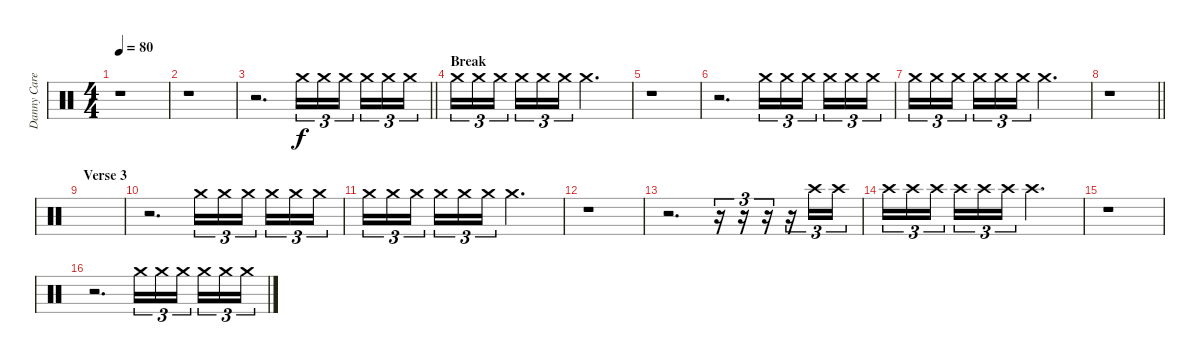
\track ("Danny Carey - Percussion" "Danny Care") {instrument percussion}
\staff {score}
\articulation defaults
\ts (4 4)
\tempo 80
\clef neutral
\ks c
r.1{dy f} |
r.1 |
\barLineRight lightlight
r.2{d volume 0} "Crash medium (hit)".16{tu (3 2) volume 10} "Crash medium (hit)".16{tu (3 2)} "Crash medium (hit)".16{tu (3 2) beam splitsecondary} "Crash medium (hit)".16{tu (3 2)} "Crash medium (hit)".16{tu (3 2)} "Crash medium (hit)".16{tu (3 2)} |
\section ("" "Break")
"Crash medium (hit)".16{tu (3 2)} "Crash medium (hit)".16{tu (3 2)} "Crash medium (hit)".16{tu (3 2) beam splitsecondary} "Crash medium (hit)".16{tu (3 2)} "Crash medium (hit)".16{tu (3 2)} "Crash medium (hit)".16{tu (3 2)} "Crash medium (hit)".2{d} |
r.1 |
r.2{d volume 0} "Crash medium (hit)".16{tu (3 2) volume 10} "Crash medium (hit)".16{tu (3 2)} "Crash medium (hit)".16{tu (3 2) beam splitsecondary} "Crash medium (hit)".16{tu (3 2)} "Crash medium (hit)".16{tu (3 2)} "Crash medium (hit)".16{tu (3 2)} |
"Crash medium (hit)".16{tu (3 2)} "Crash medium (hit)".16{tu (3 2)} "Crash medium (hit)".16{tu (3 2) beam splitsecondary} "Crash medium (hit)".16{tu (3 2)} "Crash medium (hit)".16{tu (3 2)} "Crash medium (hit)".16{tu (3 2)} "Crash medium (hit)".2{d} |
\barLineRight lightlight
r.1 |
\section ("" "Verse 3")
|
r.2{d volume 0} "Crash medium (hit)".16{tu (3 2) volume 10} "Crash medium (hit)".16{tu (3 2)} "Crash medium (hit)".16{tu (3 2) beam splitsecondary} "Crash medium (hit)".16{tu (3 2)} "Crash medium (hit)".16{tu (3 2)} "Crash medium (hit)".16{tu (3 2)} |
"Crash medium (hit)".16{tu (3 2)} "Crash medium (hit)".16{tu (3 2)} "Crash medium (hit)".16{tu (3 2) beam splitsecondary} "Crash medium (hit)".16{tu (3 2)} "Crash medium (hit)".16{tu (3 2)} "Crash medium (hit)".16{tu (3 2)} "Crash medium (hit)".2{d} |
r.1 |
r.2{d volume 0} r.16{tu (3 2) volume 10} r.16{tu (3 2)} r.16{tu (3 2)} r.16{tu (3 2)} "Crash high (hit)".16{tu (3 2)} "Crash high (hit)".16{tu (3 2)} |
"Crash high (hit)".16{tu (3 2)} "Crash high (hit)".16{tu (3 2)} "Crash high (hit)".16{tu (3 2) beam splitsecondary} "Crash high (hit)".16{tu (3 2)} "Crash high (hit)".16{tu (3 2)} "Crash high (hit)".16{tu (3 2)} "Crash high (hit)".2{d} |
r.1 |
r.2{d volume 0} "Crash medium (hit)".16{tu (3 2) volume 10} "Crash medium (hit)".16{tu (3 2)} "Crash medium (hit)".16{tu (3 2) beam splitsecondary} "Crash medium (hit)".16{tu (3 2)} "Crash medium (hit)".16{tu (3 2)} "Crash medium (hit)".16{tu (3 2)}
